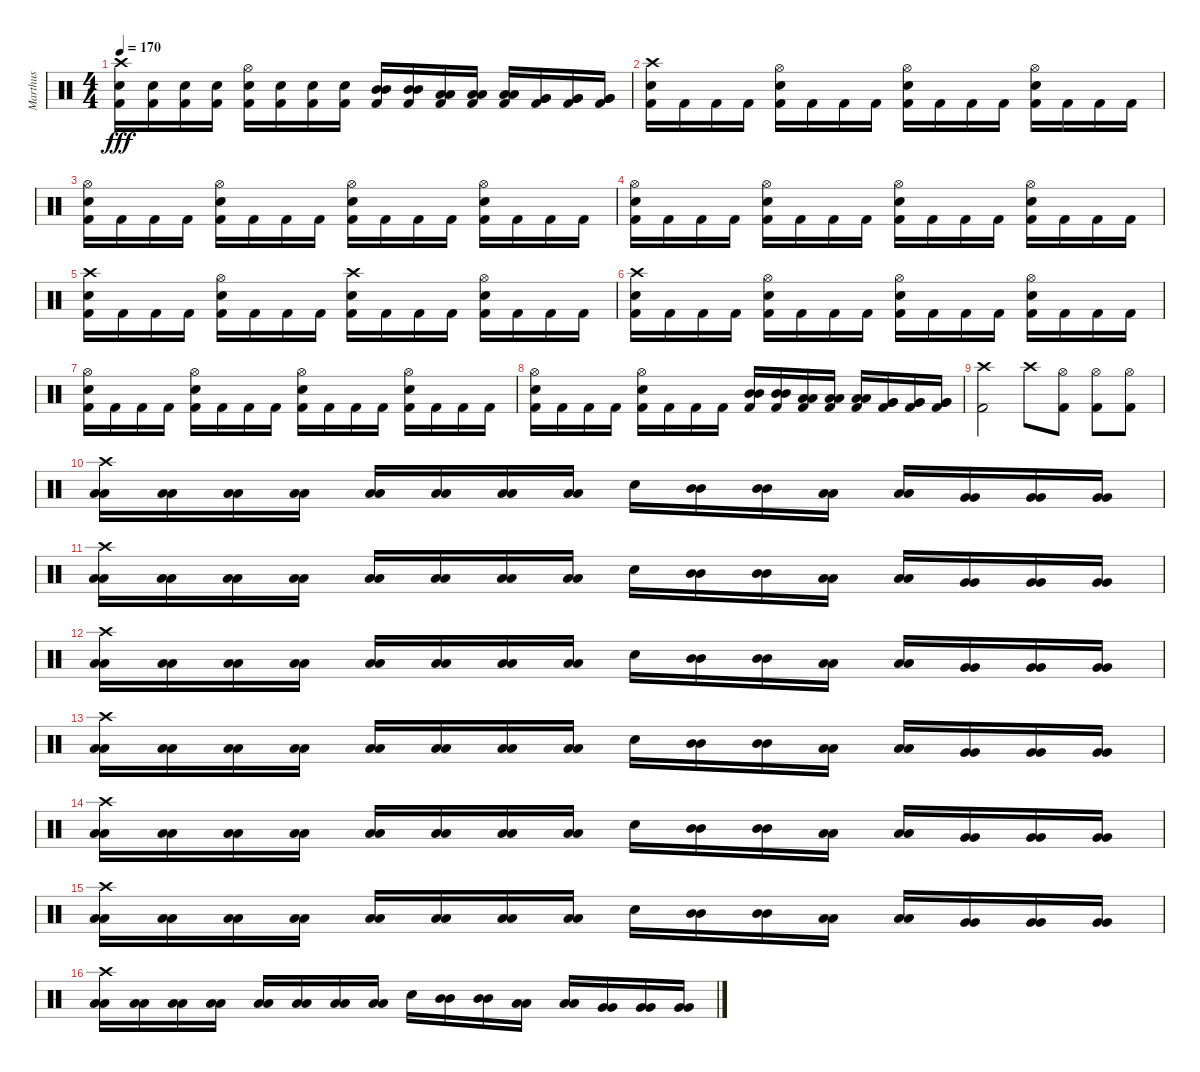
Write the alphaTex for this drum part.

\track ("Marthus" "Marthus") {instrument percussion}
\staff {score}
\articulation defaults
\ts (4 4)
\tempo 170
\clef neutral
\ks c
("Crash high (hit)" "Electric Snare (hit)" "Kick (hit) 2").16{dy fff} ("Electric Snare (hit)" "Kick (hit) 2").16 ("Electric Snare (hit)" "Kick (hit) 2").16 ("Electric Snare (hit)" "Kick (hit) 2").16 ("Hi-Hat (open)" "Electric Snare (hit)" "Kick (hit) 2").16 ("Electric Snare (hit)" "Kick (hit) 2").16 ("Electric Snare (hit)" "Kick (hit) 2").16 ("Electric Snare (hit)" "Kick (hit) 2").16 ("Mid Tom (hit)" "Mid Tom (hit)" "Kick (hit) 2").16 ("Mid Tom (hit)" "Mid Tom (hit)" "Kick (hit) 2").16 ("Low Tom (hit)" "Low Tom (hit)" "Kick (hit) 2").16 ("Low Tom (hit)" "Low Tom (hit)" "Kick (hit) 2").16 ("Low Tom (hit)" "Low Tom (hit)" "Kick (hit) 2").16 ("Very Low Tom (hit)" "Very Low Tom (hit)" "Kick (hit) 2").16 ("Very Low Tom (hit)" "Very Low Tom (hit)" "Kick (hit) 2").16 ("Very Low Tom (hit)" "Very Low Tom (hit)" "Kick (hit) 2").16 |
("Crash high (hit)" "Electric Snare (hit)" "Kick (hit) 2").16 "Kick (hit) 2".16 "Kick (hit) 2".16 "Kick (hit) 2".16 ("Hi-Hat (open)" "Electric Snare (hit)" "Kick (hit) 2").16 "Kick (hit) 2".16 "Kick (hit) 2".16 "Kick (hit) 2".16 ("Hi-Hat (open)" "Electric Snare (hit)" "Kick (hit) 2").16 "Kick (hit) 2".16 "Kick (hit) 2".16 "Kick (hit) 2".16 ("Hi-Hat (open)" "Electric Snare (hit)" "Kick (hit) 2").16 "Kick (hit) 2".16 "Kick (hit) 2".16 "Kick (hit) 2".16 |
("Hi-Hat (open)" "Electric Snare (hit)" "Kick (hit) 2").16 "Kick (hit) 2".16 "Kick (hit) 2".16 "Kick (hit) 2".16 ("Hi-Hat (open)" "Electric Snare (hit)" "Kick (hit) 2").16 "Kick (hit) 2".16 "Kick (hit) 2".16 "Kick (hit) 2".16 ("Hi-Hat (open)" "Electric Snare (hit)" "Kick (hit) 2").16 "Kick (hit) 2".16 "Kick (hit) 2".16 "Kick (hit) 2".16 ("Hi-Hat (open)" "Electric Snare (hit)" "Kick (hit) 2").16 "Kick (hit) 2".16 "Kick (hit) 2".16 "Kick (hit) 2".16 |
("Hi-Hat (open)" "Electric Snare (hit)" "Kick (hit) 2").16 "Kick (hit) 2".16 "Kick (hit) 2".16 "Kick (hit) 2".16 ("Hi-Hat (open)" "Electric Snare (hit)" "Kick (hit) 2").16 "Kick (hit) 2".16 "Kick (hit) 2".16 "Kick (hit) 2".16 ("Hi-Hat (open)" "Electric Snare (hit)" "Kick (hit) 2").16 "Kick (hit) 2".16 "Kick (hit) 2".16 "Kick (hit) 2".16 ("Hi-Hat (open)" "Electric Snare (hit)" "Kick (hit) 2").16 "Kick (hit) 2".16 "Kick (hit) 2".16 "Kick (hit) 2".16 |
("Crash high (hit)" "Electric Snare (hit)" "Kick (hit) 2").16 "Kick (hit) 2".16 "Kick (hit) 2".16 "Kick (hit) 2".16 ("Hi-Hat (open)" "Electric Snare (hit)" "Kick (hit) 2").16 "Kick (hit) 2".16 "Kick (hit) 2".16 "Kick (hit) 2".16 ("Crash high (hit)" "Electric Snare (hit)" "Kick (hit) 2").16 "Kick (hit) 2".16 "Kick (hit) 2".16 "Kick (hit) 2".16 ("Hi-Hat (open)" "Electric Snare (hit)" "Kick (hit) 2").16 "Kick (hit) 2".16 "Kick (hit) 2".16 "Kick (hit) 2".16 |
("Crash high (hit)" "Electric Snare (hit)" "Kick (hit) 2").16 "Kick (hit) 2".16 "Kick (hit) 2".16 "Kick (hit) 2".16 ("Hi-Hat (open)" "Electric Snare (hit)" "Kick (hit) 2").16 "Kick (hit) 2".16 "Kick (hit) 2".16 "Kick (hit) 2".16 ("Hi-Hat (open)" "Electric Snare (hit)" "Kick (hit) 2").16 "Kick (hit) 2".16 "Kick (hit) 2".16 "Kick (hit) 2".16 ("Hi-Hat (open)" "Electric Snare (hit)" "Kick (hit) 2").16 "Kick (hit) 2".16 "Kick (hit) 2".16 "Kick (hit) 2".16 |
("Hi-Hat (open)" "Electric Snare (hit)" "Kick (hit) 2").16 "Kick (hit) 2".16 "Kick (hit) 2".16 "Kick (hit) 2".16 ("Hi-Hat (open)" "Electric Snare (hit)" "Kick (hit) 2").16 "Kick (hit) 2".16 "Kick (hit) 2".16 "Kick (hit) 2".16 ("Hi-Hat (open)" "Electric Snare (hit)" "Kick (hit) 2").16 "Kick (hit) 2".16 "Kick (hit) 2".16 "Kick (hit) 2".16 ("Hi-Hat (open)" "Electric Snare (hit)" "Kick (hit) 2").16 "Kick (hit) 2".16 "Kick (hit) 2".16 "Kick (hit) 2".16 |
("Hi-Hat (open)" "Electric Snare (hit)" "Kick (hit) 2").16 "Kick (hit) 2".16 "Kick (hit) 2".16 "Kick (hit) 2".16 ("Hi-Hat (open)" "Electric Snare (hit)" "Kick (hit) 2").16 "Kick (hit) 2".16 "Kick (hit) 2".16 "Kick (hit) 2".16 ("Mid Tom (hit)" "Mid Tom (hit)" "Kick (hit) 2").16 ("Mid Tom (hit)" "Mid Tom (hit)" "Kick (hit) 2").16 ("Low Tom (hit)" "Low Tom (hit)" "Kick (hit) 2").16 ("Low Tom (hit)" "Low Tom (hit)" "Kick (hit) 2").16 ("Low Tom (hit)" "Low Tom (hit)" "Kick (hit) 2").16 ("Very Low Tom (hit)" "Very Low Tom (hit)" "Kick (hit) 2").16 ("Very Low Tom (hit)" "Very Low Tom (hit)" "Kick (hit) 2").16 ("Very Low Tom (hit)" "Very Low Tom (hit)" "Kick (hit) 2").16 |
("Crash high (hit)" "Kick (hit) 2").2 "Crash high (hit)".8 ("Hi-Hat (open)" "Kick (hit) 2").8 ("Hi-Hat (open)" "Kick (hit) 2").8 ("Hi-Hat (open)" "Kick (hit) 2").8 |
("Crash high (hit)" "Low Floor Tom (hit)" "Low Floor Tom (hit)").16 ("Low Floor Tom (hit)" "Low Floor Tom (hit)").16 ("Low Floor Tom (hit)" "Low Floor Tom (hit)").16 ("Low Floor Tom (hit)" "Low Floor Tom (hit)").16 ("Low Floor Tom (hit)" "Low Floor Tom (hit)").16 ("Low Floor Tom (hit)" "Low Floor Tom (hit)").16 ("Low Floor Tom (hit)" "Low Floor Tom (hit)").16 ("Low Floor Tom (hit)" "Low Floor Tom (hit)").16 "Electric Snare (hit)".16 ("Mid Tom (hit)" "Mid Tom (hit)").16 ("Mid Tom (hit)" "Mid Tom (hit)").16 ("Low Tom (hit)" "Low Tom (hit)").16 ("Low Tom (hit)" "Low Tom (hit)").16 ("Very Low Tom (hit)" "Very Low Tom (hit)").16 ("Very Low Tom (hit)" "Very Low Tom (hit)").16 ("Very Low Tom (hit)" "Very Low Tom (hit)").16 |
("Crash high (hit)" "Low Floor Tom (hit)" "Low Floor Tom (hit)").16 ("Low Floor Tom (hit)" "Low Floor Tom (hit)").16 ("Low Floor Tom (hit)" "Low Floor Tom (hit)").16 ("Low Floor Tom (hit)" "Low Floor Tom (hit)").16 ("Low Floor Tom (hit)" "Low Floor Tom (hit)").16 ("Low Floor Tom (hit)" "Low Floor Tom (hit)").16 ("Low Floor Tom (hit)" "Low Floor Tom (hit)").16 ("Low Floor Tom (hit)" "Low Floor Tom (hit)").16 "Electric Snare (hit)".16 ("Mid Tom (hit)" "Mid Tom (hit)").16 ("Mid Tom (hit)" "Mid Tom (hit)").16 ("Low Tom (hit)" "Low Tom (hit)").16 ("Low Tom (hit)" "Low Tom (hit)").16 ("Very Low Tom (hit)" "Very Low Tom (hit)").16 ("Very Low Tom (hit)" "Very Low Tom (hit)").16 ("Very Low Tom (hit)" "Very Low Tom (hit)").16 |
("Crash high (hit)" "Low Floor Tom (hit)" "Low Floor Tom (hit)").16 ("Low Floor Tom (hit)" "Low Floor Tom (hit)").16 ("Low Floor Tom (hit)" "Low Floor Tom (hit)").16 ("Low Floor Tom (hit)" "Low Floor Tom (hit)").16 ("Low Floor Tom (hit)" "Low Floor Tom (hit)").16 ("Low Floor Tom (hit)" "Low Floor Tom (hit)").16 ("Low Floor Tom (hit)" "Low Floor Tom (hit)").16 ("Low Floor Tom (hit)" "Low Floor Tom (hit)").16 "Electric Snare (hit)".16 ("Mid Tom (hit)" "Mid Tom (hit)").16 ("Mid Tom (hit)" "Mid Tom (hit)").16 ("Low Tom (hit)" "Low Tom (hit)").16 ("Low Tom (hit)" "Low Tom (hit)").16 ("Very Low Tom (hit)" "Very Low Tom (hit)").16 ("Very Low Tom (hit)" "Very Low Tom (hit)").16 ("Very Low Tom (hit)" "Very Low Tom (hit)").16 |
("Crash high (hit)" "Low Floor Tom (hit)" "Low Floor Tom (hit)").16 ("Low Floor Tom (hit)" "Low Floor Tom (hit)").16 ("Low Floor Tom (hit)" "Low Floor Tom (hit)").16 ("Low Floor Tom (hit)" "Low Floor Tom (hit)").16 ("Low Floor Tom (hit)" "Low Floor Tom (hit)").16 ("Low Floor Tom (hit)" "Low Floor Tom (hit)").16 ("Low Floor Tom (hit)" "Low Floor Tom (hit)").16 ("Low Floor Tom (hit)" "Low Floor Tom (hit)").16 "Electric Snare (hit)".16 ("Mid Tom (hit)" "Mid Tom (hit)").16 ("Mid Tom (hit)" "Mid Tom (hit)").16 ("Low Tom (hit)" "Low Tom (hit)").16 ("Low Tom (hit)" "Low Tom (hit)").16 ("Very Low Tom (hit)" "Very Low Tom (hit)").16 ("Very Low Tom (hit)" "Very Low Tom (hit)").16 ("Very Low Tom (hit)" "Very Low Tom (hit)").16 |
("Crash high (hit)" "Low Floor Tom (hit)" "Low Floor Tom (hit)").16 ("Low Floor Tom (hit)" "Low Floor Tom (hit)").16 ("Low Floor Tom (hit)" "Low Floor Tom (hit)").16 ("Low Floor Tom (hit)" "Low Floor Tom (hit)").16 ("Low Floor Tom (hit)" "Low Floor Tom (hit)").16 ("Low Floor Tom (hit)" "Low Floor Tom (hit)").16 ("Low Floor Tom (hit)" "Low Floor Tom (hit)").16 ("Low Floor Tom (hit)" "Low Floor Tom (hit)").16 "Electric Snare (hit)".16 ("Mid Tom (hit)" "Mid Tom (hit)").16 ("Mid Tom (hit)" "Mid Tom (hit)").16 ("Low Tom (hit)" "Low Tom (hit)").16 ("Low Tom (hit)" "Low Tom (hit)").16 ("Very Low Tom (hit)" "Very Low Tom (hit)").16 ("Very Low Tom (hit)" "Very Low Tom (hit)").16 ("Very Low Tom (hit)" "Very Low Tom (hit)").16 |
("Crash high (hit)" "Low Floor Tom (hit)" "Low Floor Tom (hit)").16 ("Low Floor Tom (hit)" "Low Floor Tom (hit)").16 ("Low Floor Tom (hit)" "Low Floor Tom (hit)").16 ("Low Floor Tom (hit)" "Low Floor Tom (hit)").16 ("Low Floor Tom (hit)" "Low Floor Tom (hit)").16 ("Low Floor Tom (hit)" "Low Floor Tom (hit)").16 ("Low Floor Tom (hit)" "Low Floor Tom (hit)").16 ("Low Floor Tom (hit)" "Low Floor Tom (hit)").16 "Electric Snare (hit)".16 ("Mid Tom (hit)" "Mid Tom (hit)").16 ("Mid Tom (hit)" "Mid Tom (hit)").16 ("Low Tom (hit)" "Low Tom (hit)").16 ("Low Tom (hit)" "Low Tom (hit)").16 ("Very Low Tom (hit)" "Very Low Tom (hit)").16 ("Very Low Tom (hit)" "Very Low Tom (hit)").16 ("Very Low Tom (hit)" "Very Low Tom (hit)").16 |
("Crash high (hit)" "Low Floor Tom (hit)" "Low Floor Tom (hit)").16 ("Low Floor Tom (hit)" "Low Floor Tom (hit)").16 ("Low Floor Tom (hit)" "Low Floor Tom (hit)").16 ("Low Floor Tom (hit)" "Low Floor Tom (hit)").16 ("Low Floor Tom (hit)" "Low Floor Tom (hit)").16 ("Low Floor Tom (hit)" "Low Floor Tom (hit)").16 ("Low Floor Tom (hit)" "Low Floor Tom (hit)").16 ("Low Floor Tom (hit)" "Low Floor Tom (hit)").16 "Electric Snare (hit)".16 ("Mid Tom (hit)" "Mid Tom (hit)").16 ("Mid Tom (hit)" "Mid Tom (hit)").16 ("Low Tom (hit)" "Low Tom (hit)").16 ("Low Tom (hit)" "Low Tom (hit)").16 ("Very Low Tom (hit)" "Very Low Tom (hit)").16 ("Very Low Tom (hit)" "Very Low Tom (hit)").16 ("Very Low Tom (hit)" "Very Low Tom (hit)").16
